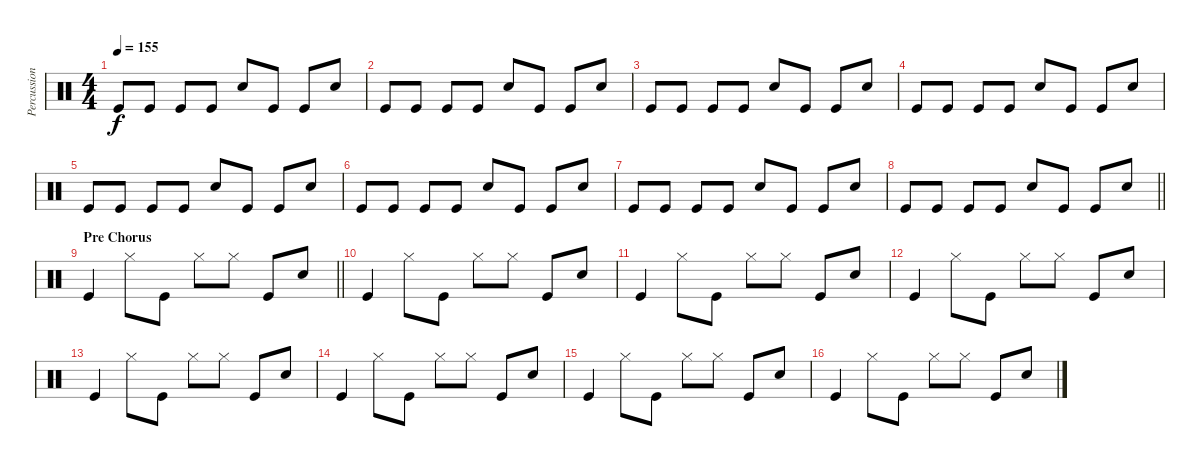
\track ("Percussion" "Percussion") {instrument percussion}
\staff {score}
\articulation defaults
\ts (4 4)
\tempo 155
\clef neutral
\ks c "Kick (hit)".8{dy f} "Kick (hit)".8 "Kick (hit)".8 "Kick (hit)".8 "Snare (hit) 2".8 "Kick (hit)".8 "Kick (hit)".8 "Snare (hit) 2".8
|
"Kick (hit)".8 "Kick (hit)".8 "Kick (hit)".8 "Kick (hit)".8 "Snare (hit) 2".8 "Kick (hit)".8 "Kick (hit)".8 "Snare (hit) 2".8 |
"Kick (hit)".8 "Kick (hit)".8 "Kick (hit)".8 "Kick (hit)".8 "Snare (hit) 2".8 "Kick (hit)".8 "Kick (hit)".8 "Snare (hit) 2".8 |
"Kick (hit)".8 "Kick (hit)".8 "Kick (hit)".8 "Kick (hit)".8 "Snare (hit) 2".8 "Kick (hit)".8 "Kick (hit)".8 "Snare (hit) 2".8 |
"Kick (hit)".8 "Kick (hit)".8 "Kick (hit)".8 "Kick (hit)".8 "Snare (hit) 2".8 "Kick (hit)".8 "Kick (hit)".8 "Snare (hit) 2".8 |
"Kick (hit)".8 "Kick (hit)".8 "Kick (hit)".8 "Kick (hit)".8 "Snare (hit) 2".8 "Kick (hit)".8 "Kick (hit)".8 "Snare (hit) 2".8 |
"Kick (hit)".8 "Kick (hit)".8 "Kick (hit)".8 "Kick (hit)".8 "Snare (hit) 2".8 "Kick (hit)".8 "Kick (hit)".8 "Snare (hit) 2".8 |
\barLineRight lightlight "Kick (hit)".8 "Kick (hit)".8 "Kick (hit)".8 "Kick (hit)".8 "Snare (hit) 2".8 "Kick (hit)".8 "Kick (hit)".8 "Snare (hit) 2".8
|
\section ("" "Pre Chorus")
\barLineRight lightlight "Kick (hit)".4 "Hi-Hat (closed)".8 "Kick (hit)".8 "Hi-Hat (closed)".8 "Hi-Hat (closed)".8 "Kick (hit)".8 "Electric Snare (hit)".8
|
"Kick (hit)".4 "Hi-Hat (closed)".8 "Kick (hit)".8 "Hi-Hat (closed)".8 "Hi-Hat (closed)".8 "Kick (hit)".8 "Electric Snare (hit)".8 |
"Kick (hit)".4 "Hi-Hat (closed)".8 "Kick (hit)".8 "Hi-Hat (closed)".8 "Hi-Hat (closed)".8 "Kick (hit)".8 "Electric Snare (hit)".8 |
"Kick (hit)".4 "Hi-Hat (closed)".8 "Kick (hit)".8 "Hi-Hat (closed)".8 "Hi-Hat (closed)".8 "Kick (hit)".8 "Electric Snare (hit)".8 |
"Kick (hit)".4 "Hi-Hat (closed)".8 "Kick (hit)".8 "Hi-Hat (closed)".8 "Hi-Hat (closed)".8 "Kick (hit)".8 "Electric Snare (hit)".8 |
"Kick (hit)".4 "Hi-Hat (closed)".8 "Kick (hit)".8 "Hi-Hat (closed)".8 "Hi-Hat (closed)".8 "Kick (hit)".8 "Electric Snare (hit)".8 |
"Kick (hit)".4 "Hi-Hat (closed)".8 "Kick (hit)".8 "Hi-Hat (closed)".8 "Hi-Hat (closed)".8 "Kick (hit)".8 "Electric Snare (hit)".8 |
"Kick (hit)".4 "Hi-Hat (closed)".8 "Kick (hit)".8 "Hi-Hat (closed)".8 "Hi-Hat (closed)".8 "Kick (hit)".8 "Electric Snare (hit)".8
